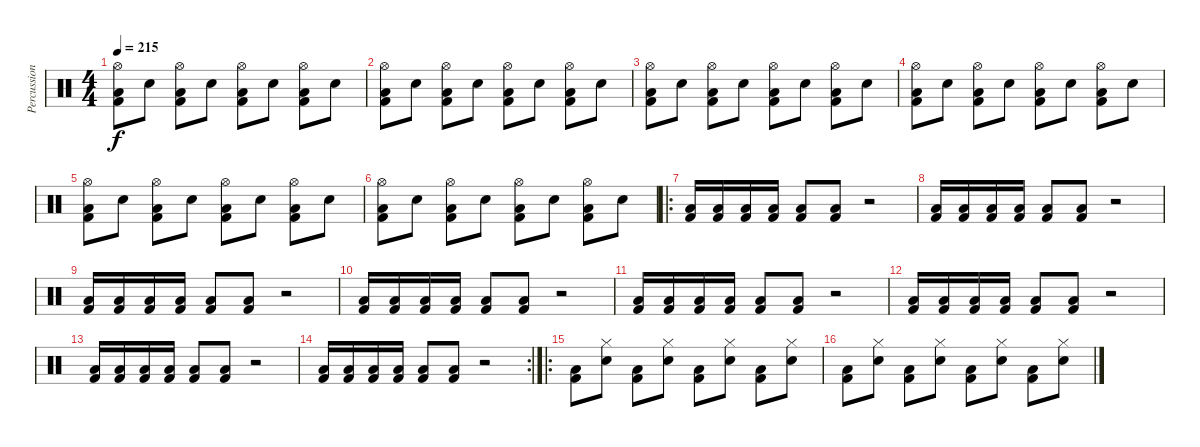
\track ("Percussion" "Percussion") {instrument percussion}
\staff {score}
\articulation defaults
\ts (4 4)
\tempo 215
\clef neutral
\ks c
("Hi-Hat (open)" "Kick (hit) 2" "Low Floor Tom (hit)").8{dy f} "Electric Snare (hit)".8 ("Hi-Hat (open)" "Kick (hit) 2" "Low Floor Tom (hit)").8 "Electric Snare (hit)".8 ("Hi-Hat (open)" "Kick (hit) 2" "Low Floor Tom (hit)").8 "Electric Snare (hit)".8 ("Hi-Hat (open)" "Kick (hit) 2" "Low Floor Tom (hit)").8 "Electric Snare (hit)".8 |
("Hi-Hat (open)" "Kick (hit) 2" "Low Floor Tom (hit)").8 "Electric Snare (hit)".8 ("Hi-Hat (open)" "Kick (hit) 2" "Low Floor Tom (hit)").8 "Electric Snare (hit)".8 ("Hi-Hat (open)" "Kick (hit) 2" "Low Floor Tom (hit)").8 "Electric Snare (hit)".8 ("Hi-Hat (open)" "Kick (hit) 2" "Low Floor Tom (hit)").8 "Electric Snare (hit)".8 |
("Hi-Hat (open)" "Kick (hit) 2" "Low Floor Tom (hit)").8 "Electric Snare (hit)".8 ("Hi-Hat (open)" "Kick (hit) 2" "Low Floor Tom (hit)").8 "Electric Snare (hit)".8 ("Hi-Hat (open)" "Kick (hit) 2" "Low Floor Tom (hit)").8 "Electric Snare (hit)".8 ("Hi-Hat (open)" "Kick (hit) 2" "Low Floor Tom (hit)").8 "Electric Snare (hit)".8 |
("Hi-Hat (open)" "Kick (hit) 2" "Low Floor Tom (hit)").8 "Electric Snare (hit)".8 ("Hi-Hat (open)" "Kick (hit) 2" "Low Floor Tom (hit)").8 "Electric Snare (hit)".8 ("Hi-Hat (open)" "Kick (hit) 2" "Low Floor Tom (hit)").8 "Electric Snare (hit)".8 ("Hi-Hat (open)" "Kick (hit) 2" "Low Floor Tom (hit)").8 "Electric Snare (hit)".8 |
("Hi-Hat (open)" "Kick (hit) 2" "Low Floor Tom (hit)").8 "Electric Snare (hit)".8 ("Hi-Hat (open)" "Kick (hit) 2" "Low Floor Tom (hit)").8 "Electric Snare (hit)".8 ("Hi-Hat (open)" "Kick (hit) 2" "Low Floor Tom (hit)").8 "Electric Snare (hit)".8 ("Hi-Hat (open)" "Kick (hit) 2" "Low Floor Tom (hit)").8 "Electric Snare (hit)".8 |
("Hi-Hat (open)" "Kick (hit) 2" "Low Floor Tom (hit)").8 "Electric Snare (hit)".8 ("Hi-Hat (open)" "Kick (hit) 2" "Low Floor Tom (hit)").8 "Electric Snare (hit)".8 ("Hi-Hat (open)" "Kick (hit) 2" "Low Floor Tom (hit)").8 "Electric Snare (hit)".8 ("Hi-Hat (open)" "Kick (hit) 2" "Low Floor Tom (hit)").8 "Electric Snare (hit)".8 |
\ro
("Low Floor Tom (hit)" "Kick (hit) 2").16 ("Low Floor Tom (hit)" "Kick (hit) 2").16 ("Low Floor Tom (hit)" "Kick (hit) 2").16 ("Low Floor Tom (hit)" "Kick (hit) 2").16 ("Low Floor Tom (hit)" "Kick (hit) 2").8 ("Low Floor Tom (hit)" "Kick (hit) 2").8 r.2 |
("Low Floor Tom (hit)" "Kick (hit) 2").16 ("Low Floor Tom (hit)" "Kick (hit) 2").16 ("Low Floor Tom (hit)" "Kick (hit) 2").16 ("Low Floor Tom (hit)" "Kick (hit) 2").16 ("Low Floor Tom (hit)" "Kick (hit) 2").8 ("Low Floor Tom (hit)" "Kick (hit) 2").8 r.2 |
("Low Floor Tom (hit)" "Kick (hit) 2").16 ("Low Floor Tom (hit)" "Kick (hit) 2").16 ("Low Floor Tom (hit)" "Kick (hit) 2").16 ("Low Floor Tom (hit)" "Kick (hit) 2").16 ("Low Floor Tom (hit)" "Kick (hit) 2").8 ("Low Floor Tom (hit)" "Kick (hit) 2").8 r.2 |
("Low Floor Tom (hit)" "Kick (hit) 2").16 ("Low Floor Tom (hit)" "Kick (hit) 2").16 ("Low Floor Tom (hit)" "Kick (hit) 2").16 ("Low Floor Tom (hit)" "Kick (hit) 2").16 ("Low Floor Tom (hit)" "Kick (hit) 2").8 ("Low Floor Tom (hit)" "Kick (hit) 2").8 r.2 |
("Low Floor Tom (hit)" "Kick (hit) 2").16 ("Low Floor Tom (hit)" "Kick (hit) 2").16 ("Low Floor Tom (hit)" "Kick (hit) 2").16 ("Low Floor Tom (hit)" "Kick (hit) 2").16 ("Low Floor Tom (hit)" "Kick (hit) 2").8 ("Low Floor Tom (hit)" "Kick (hit) 2").8 r.2 |
("Low Floor Tom (hit)" "Kick (hit) 2").16 ("Low Floor Tom (hit)" "Kick (hit) 2").16 ("Low Floor Tom (hit)" "Kick (hit) 2").16 ("Low Floor Tom (hit)" "Kick (hit) 2").16 ("Low Floor Tom (hit)" "Kick (hit) 2").8 ("Low Floor Tom (hit)" "Kick (hit) 2").8 r.2 |
("Low Floor Tom (hit)" "Kick (hit) 2").16 ("Low Floor Tom (hit)" "Kick (hit) 2").16 ("Low Floor Tom (hit)" "Kick (hit) 2").16 ("Low Floor Tom (hit)" "Kick (hit) 2").16 ("Low Floor Tom (hit)" "Kick (hit) 2").8 ("Low Floor Tom (hit)" "Kick (hit) 2").8 r.2 |
\rc 2
("Low Floor Tom (hit)" "Kick (hit) 2").16 ("Low Floor Tom (hit)" "Kick (hit) 2").16 ("Low Floor Tom (hit)" "Kick (hit) 2").16 ("Low Floor Tom (hit)" "Kick (hit) 2").16 ("Low Floor Tom (hit)" "Kick (hit) 2").8 ("Low Floor Tom (hit)" "Kick (hit) 2").8 r.2 |
\ro
("Low Floor Tom (hit)" "Kick (hit) 2").8 ("Hi-Hat (closed)" "Electric Snare (hit)").8 ("Low Floor Tom (hit)" "Kick (hit) 2").8 ("Hi-Hat (closed)" "Electric Snare (hit)").8 ("Low Floor Tom (hit)" "Kick (hit) 2").8 ("Hi-Hat (closed)" "Electric Snare (hit)").8 ("Low Floor Tom (hit)" "Kick (hit) 2").8 ("Hi-Hat (closed)" "Electric Snare (hit)").8 |
("Low Floor Tom (hit)" "Kick (hit) 2").8 ("Hi-Hat (closed)" "Electric Snare (hit)").8 ("Low Floor Tom (hit)" "Kick (hit) 2").8 ("Hi-Hat (closed)" "Electric Snare (hit)").8 ("Low Floor Tom (hit)" "Kick (hit) 2").8 ("Hi-Hat (closed)" "Electric Snare (hit)").8 ("Low Floor Tom (hit)" "Kick (hit) 2").8 ("Hi-Hat (closed)" "Electric Snare (hit)").8
